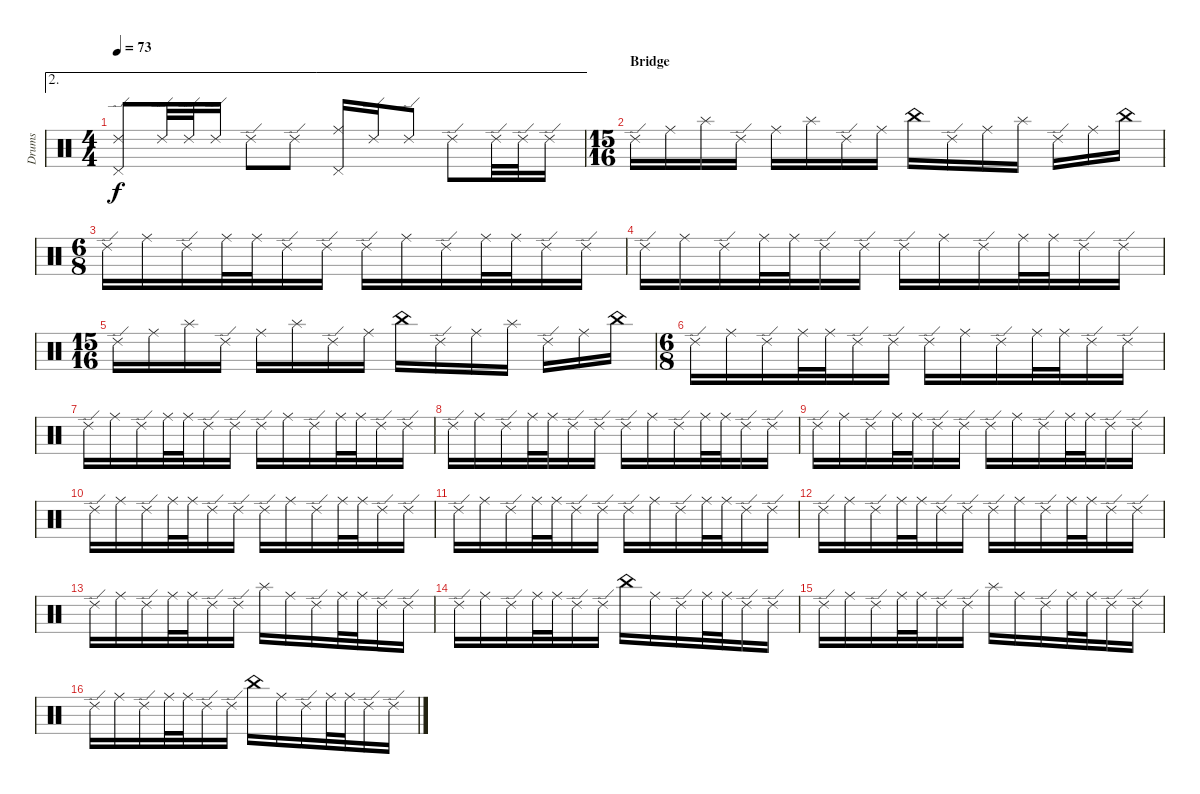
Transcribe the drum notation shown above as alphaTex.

\track ("Drums" "Drums") {instrument percussion}
\staff {score}
\articulation defaults
\ae 2
\ts (4 4)
\tempo 73
\clef neutral
\ks c
("Ride (edge) 2" "Pedal Hi-Hat (hit)").8{dy f} "Ride (edge) 2".32 "Ride (edge) 2".32 "Ride (edge) 2".16 "Ride (edge) 2".8 "Ride (edge) 2".8 ("Ride (middle)" "Pedal Hi-Hat (hit)").16 "Ride (edge) 2".16 "Ride (edge) 2".8 "Ride (edge) 2".8 "Ride (edge) 2".32 "Ride (edge) 2".32 "Ride (edge) 2".16 |
\ts (15 16)
\section ("" "Bridge")
"Ride (edge) 2".16 "Ride (middle)".16 "Splash (hit)".16 "Ride (edge) 2".16 "Ride (middle)".16 "Splash (hit)".16 "Ride (edge) 2".16 "Ride (middle)".16 "China (hit)".16 "Ride (edge) 2".16 "Ride (middle)".16 "Splash (hit)".16 "Ride (edge) 2".16 "Ride (middle)".16 "China (hit)".16 |
\ts (6 8)
"Ride (edge) 2".16 "Ride (middle)".16 "Ride (edge) 2".16 "Ride (middle)".32 "Ride (middle)".32 "Ride (edge) 2".16 "Ride (edge) 2".16 "Ride (edge) 2".16 "Ride (middle)".16 "Ride (edge) 2".16 "Ride (middle)".32 "Ride (middle)".32 "Ride (edge) 2".16 "Ride (edge) 2".16 |
"Ride (edge) 2".16 "Ride (middle)".16 "Ride (edge) 2".16 "Ride (middle)".32 "Ride (middle)".32 "Ride (edge) 2".16 "Ride (edge) 2".16 "Ride (edge) 2".16 "Ride (middle)".16 "Ride (edge) 2".16 "Ride (middle)".32 "Ride (middle)".32 "Ride (edge) 2".16 "Ride (edge) 2".16 |
\ts (15 16)
"Ride (edge) 2".16 "Ride (middle)".16 "Splash (hit)".16 "Ride (edge) 2".16 "Ride (middle)".16 "Splash (hit)".16 "Ride (edge) 2".16 "Ride (middle)".16 "China (hit)".16 "Ride (edge) 2".16 "Ride (middle)".16 "Splash (hit)".16 "Ride (edge) 2".16 "Ride (middle)".16 "China (hit)".16 |
\ts (6 8)
"Ride (edge) 2".16 "Ride (middle)".16 "Ride (edge) 2".16 "Ride (middle)".32 "Ride (middle)".32 "Ride (edge) 2".16 "Ride (edge) 2".16 "Ride (edge) 2".16 "Ride (middle)".16 "Ride (edge) 2".16 "Ride (middle)".32 "Ride (middle)".32 "Ride (edge) 2".16 "Ride (edge) 2".16 |
"Ride (edge) 2".16 "Ride (middle)".16 "Ride (edge) 2".16 "Ride (middle)".32 "Ride (middle)".32 "Ride (edge) 2".16 "Ride (edge) 2".16 "Ride (edge) 2".16 "Ride (middle)".16 "Ride (edge) 2".16 "Ride (middle)".32 "Ride (middle)".32 "Ride (edge) 2".16 "Ride (edge) 2".16 |
"Ride (edge) 2".16 "Ride (middle)".16 "Ride (edge) 2".16 "Ride (middle)".32 "Ride (middle)".32 "Ride (edge) 2".16 "Ride (edge) 2".16 "Ride (edge) 2".16 "Ride (middle)".16 "Ride (edge) 2".16 "Ride (middle)".32 "Ride (middle)".32 "Ride (edge) 2".16 "Ride (edge) 2".16 |
"Ride (edge) 2".16 "Ride (middle)".16 "Ride (edge) 2".16 "Ride (middle)".32 "Ride (middle)".32 "Ride (edge) 2".16 "Ride (edge) 2".16 "Ride (edge) 2".16 "Ride (middle)".16 "Ride (edge) 2".16 "Ride (middle)".32 "Ride (middle)".32 "Ride (edge) 2".16 "Ride (edge) 2".16 |
"Ride (edge) 2".16 "Ride (middle)".16 "Ride (edge) 2".16 "Ride (middle)".32 "Ride (middle)".32 "Ride (edge) 2".16 "Ride (edge) 2".16 "Ride (edge) 2".16 "Ride (middle)".16 "Ride (edge) 2".16 "Ride (middle)".32 "Ride (middle)".32 "Ride (edge) 2".16 "Ride (edge) 2".16 |
"Ride (edge) 2".16 "Ride (middle)".16 "Ride (edge) 2".16 "Ride (middle)".32 "Ride (middle)".32 "Ride (edge) 2".16 "Ride (edge) 2".16 "Ride (edge) 2".16 "Ride (middle)".16 "Ride (edge) 2".16 "Ride (middle)".32 "Ride (middle)".32 "Ride (edge) 2".16 "Ride (edge) 2".16 |
"Ride (edge) 2".16 "Ride (middle)".16 "Ride (edge) 2".16 "Ride (middle)".32 "Ride (middle)".32 "Ride (edge) 2".16 "Ride (edge) 2".16 "Ride (edge) 2".16 "Ride (middle)".16 "Ride (edge) 2".16 "Ride (middle)".32 "Ride (middle)".32 "Ride (edge) 2".16 "Ride (edge) 2".16 |
"Ride (edge) 2".16 "Ride (middle)".16 "Ride (edge) 2".16 "Ride (middle)".32 "Ride (middle)".32 "Ride (edge) 2".16 "Ride (edge) 2".16 "Splash (hit)".16 "Ride (middle)".16 "Ride (edge) 2".16 "Ride (middle)".32 "Ride (middle)".32 "Ride (edge) 2".16 "Ride (edge) 2".16 |
"Ride (edge) 2".16 "Ride (middle)".16 "Ride (edge) 2".16 "Ride (middle)".32 "Ride (middle)".32 "Ride (edge) 2".16 "Ride (edge) 2".16 "China (hit)".16 "Ride (middle)".16 "Ride (edge) 2".16 "Ride (middle)".32 "Ride (middle)".32 "Ride (edge) 2".16 "Ride (edge) 2".16 |
"Ride (edge) 2".16 "Ride (middle)".16 "Ride (edge) 2".16 "Ride (middle)".32 "Ride (middle)".32 "Ride (edge) 2".16 "Ride (edge) 2".16 "Splash (hit)".16 "Ride (middle)".16 "Ride (edge) 2".16 "Ride (middle)".32 "Ride (middle)".32 "Ride (edge) 2".16 "Ride (edge) 2".16 |
"Ride (edge) 2".16 "Ride (middle)".16 "Ride (edge) 2".16 "Ride (middle)".32 "Ride (middle)".32 "Ride (edge) 2".16 "Ride (edge) 2".16 "China (hit)".16 "Ride (middle)".16 "Ride (edge) 2".16 "Ride (middle)".32 "Ride (middle)".32 "Ride (edge) 2".16 "Ride (edge) 2".16
